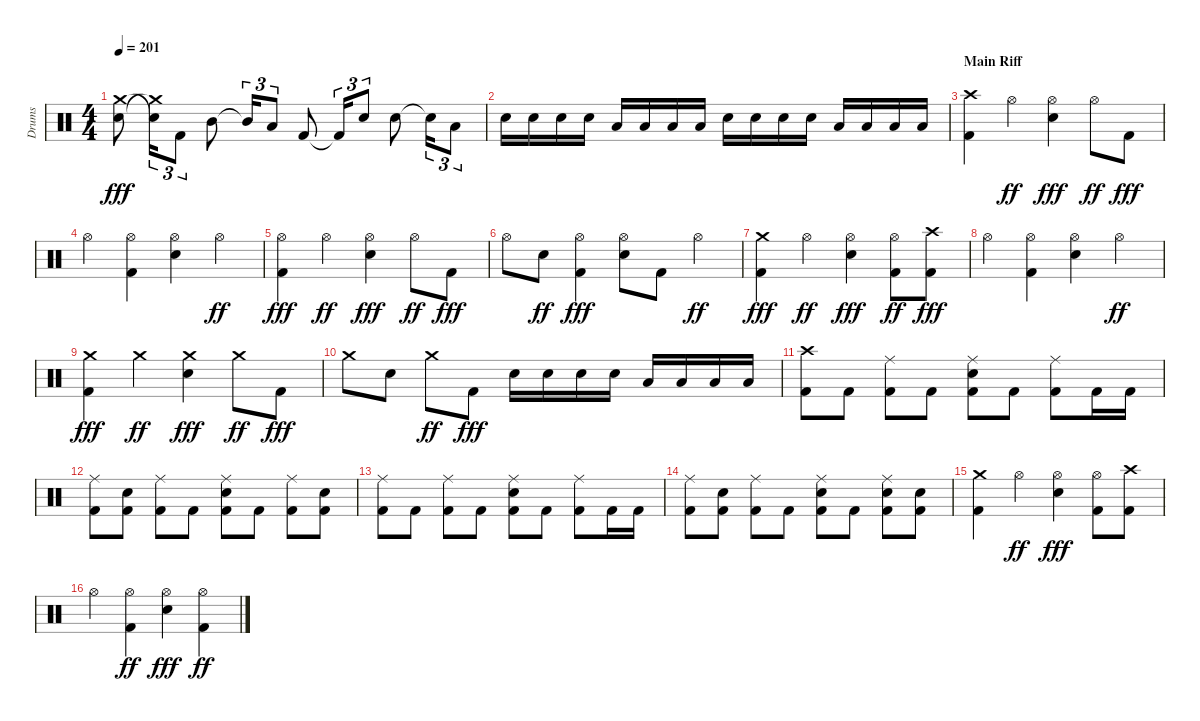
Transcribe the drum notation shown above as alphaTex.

\track ("Drums" "Drums") {instrument percussion}
\staff {score}
\articulation defaults
\ts (4 4)
\tempo 201
\clef neutral
\ks aminor
("Crash medium (hit)" "Snare (hit) 2").8{dy fff} ("Snare (hit) 2"{t} "Crash medium (hit)"{t}).16{tu (3 2)} "Kick (hit) 2".8{tu (3 2)} "Mid Tom (hit)".8 "Mid Tom (hit)"{t}.16{tu (3 2)} "Low Tom (hit)".8{tu (3 2)} "Kick (hit) 2".8 "Kick (hit) 2"{t}.16{tu (3 2)} "Snare (hit) 2".8{tu (3 2)} "Snare (hit) 2".8 "Snare (hit) 2"{t}.16{tu (3 2)} "Low Floor Tom (hit)".8{tu (3 2)} |
"Snare (hit) 2".16 "Snare (hit) 2".16 "Snare (hit) 2".16 "Snare (hit) 2".16 "Low Tom (hit)".16 "Low Tom (hit)".16 "Low Tom (hit)".16 "Low Tom (hit)".16 "Snare (hit) 2".16 "Snare (hit) 2".16 "Snare (hit) 2".16 "Snare (hit) 2".16 "Low Floor Tom (hit)".16 "Low Floor Tom (hit)".16 "Low Floor Tom (hit)".16 "Low Floor Tom (hit)".16 |
\section ("" "Main Riff")
("Kick (hit) 2" "Crash high (hit)").4 "Hi-Hat (open)".4{dy ff} ("Snare (hit) 2" "Hi-Hat (open)").4{dy fff} "Hi-Hat (open)".8{dy ff} "Kick (hit) 2".8{dy fff} |
"Hi-Hat (open)".4 ("Kick (hit) 2" "Hi-Hat (open)").4 ("Hi-Hat (open)" "Snare (hit) 2").4 "Hi-Hat (open)".4{dy ff} |
("Hi-Hat (open)" "Kick (hit) 2").4{dy fff} "Hi-Hat (open)".4{dy ff} ("Hi-Hat (open)" "Snare (hit) 2").4{dy fff} "Hi-Hat (open)".8{dy ff} "Kick (hit) 2".8{dy fff} |
"Hi-Hat (open)".8 "Snare (hit) 2".8{dy ff} ("Kick (hit) 2" "Hi-Hat (open)").4{dy fff} ("Snare (hit) 2" "Hi-Hat (open)").8 "Kick (hit) 2".8 "Hi-Hat (open)".4{dy ff} |
("Crash medium (hit)" "Kick (hit) 2").4{dy fff} "Hi-Hat (open)".4{dy ff} ("Snare (hit) 2" "Hi-Hat (open)").4{dy fff} ("Hi-Hat (open)" "Kick (hit) 2").8{dy ff} ("Crash high (hit)" "Kick (hit) 2").8{dy fff} |
"Hi-Hat (open)".4 ("Hi-Hat (open)" "Kick (hit) 2").4 ("Hi-Hat (open)" "Snare (hit) 2").4 "Hi-Hat (open)".4{dy ff} |
("Kick (hit) 2" "Crash medium (hit)").4{dy fff} "Crash medium (hit)".4{dy ff} ("Snare (hit) 2" "Crash medium (hit)").4{dy fff} "Crash medium (hit)".8{dy ff} "Kick (hit) 2".8{dy fff} |
"Crash medium (hit)".8 "Snare (hit) 2".8 "Crash medium (hit)".8{dy ff} "Kick (hit) 2".8{dy fff} "Snare (hit) 2".16 "Snare (hit) 2".16 "Snare (hit) 2".16 "Snare (hit) 2".16 "Low Floor Tom (hit)".16 "Low Floor Tom (hit)".16 "Low Floor Tom (hit)".16 "Low Floor Tom (hit)".16 |
("Crash high (hit)" "Kick (hit) 2").8 "Kick (hit) 2".8 ("Ride (middle)" "Kick (hit) 2").8 "Kick (hit) 2".8 ("Ride (middle)" "Kick (hit) 2" "Snare (hit) 2").8 "Kick (hit) 2".8 ("Ride (middle)" "Kick (hit) 2").8 "Kick (hit) 2".16 "Kick (hit) 2".16 |
("Kick (hit) 2" "Ride (middle)").8 ("Snare (hit) 2" "Kick (hit) 2").8 ("Ride (middle)" "Kick (hit) 2").8 "Kick (hit) 2".8 ("Kick (hit) 2" "Snare (hit) 2" "Ride (middle)").8 "Kick (hit) 2".8 ("Kick (hit) 2" "Ride (middle)").8 ("Kick (hit) 2" "Snare (hit) 2").8 |
("Kick (hit) 2" "Ride (middle)").8 "Kick (hit) 2".8 ("Ride (middle)" "Kick (hit) 2").8 "Kick (hit) 2".8 ("Ride (middle)" "Kick (hit) 2" "Snare (hit) 2").8 "Kick (hit) 2".8 ("Kick (hit) 2" "Ride (middle)").8 "Kick (hit) 2".16 "Kick (hit) 2".16 |
("Ride (middle)" "Kick (hit) 2").8 ("Snare (hit) 2" "Kick (hit) 2").8 ("Kick (hit) 2" "Ride (middle)").8 "Kick (hit) 2".8 ("Snare (hit) 2" "Ride (middle)" "Kick (hit) 2").8 "Kick (hit) 2".8 ("Ride (middle)" "Kick (hit) 2" "Snare (hit) 2").8 ("Snare (hit) 2" "Kick (hit) 2").8 |
("Kick (hit) 2" "Crash medium (hit)").4 "Hi-Hat (open)".4{dy ff} ("Hi-Hat (open)" "Snare (hit) 2").4{dy fff} ("Kick (hit) 2" "Hi-Hat (open)").8 ("Kick (hit) 2" "Crash high (hit)").8 |
"Hi-Hat (open)".4 ("Kick (hit) 2" "Hi-Hat (open)").4{dy ff} ("Snare (hit) 2" "Hi-Hat (open)").4{dy fff} ("Hi-Hat (open)" "Kick (hit) 2").4{dy ff}
